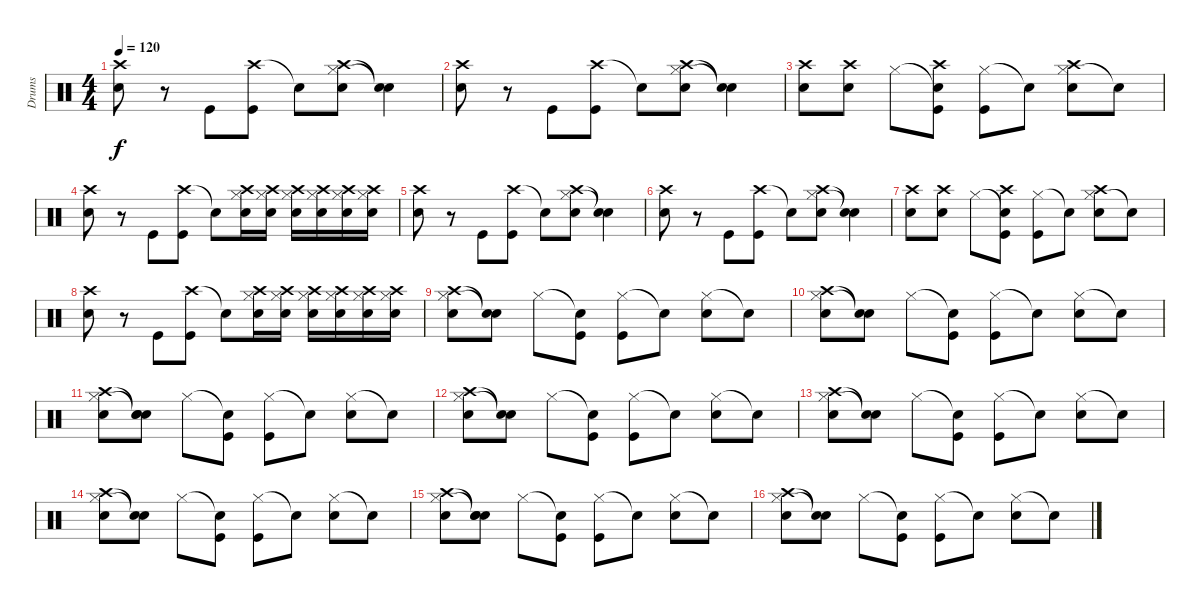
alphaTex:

\track ("Drums" "Drums") {instrument percussion}
\staff {score}
\articulation defaults
\ts (4 4)
\tempo 120
\clef neutral
\ks c
("Crash high (hit)" "Snare (hit) 2").8{dy f} r.8 "Kick (hit)".8 ("Crash high (hit)" "Kick (hit)").8 "Snare (hit)"{t}.8 ("Hi-Hat (closed)" "Crash high (hit)" "Snare (hit) 2").8 ("Snare (hit)"{t} "Snare (hit)"{t}).4 |
("Crash high (hit)" "Snare (hit) 2").8 r.8 "Kick (hit)".8 ("Crash high (hit)" "Kick (hit)").8 "Snare (hit)"{t}.8 ("Hi-Hat (closed)" "Crash high (hit)" "Snare (hit) 2").8 ("Snare (hit)"{t} "Snare (hit)"{t}).4 |
("Crash high (hit)" "Snare (hit) 2").8 ("Crash high (hit)" "Snare (hit) 2").8 "Hi-Hat (closed)".8 ("Snare (hit)"{t} "Crash high (hit)" "Kick (hit)").8 ("Hi-Hat (closed)" "Kick (hit)").8 "Snare (hit)"{t}.8 ("Hi-Hat (closed)" "Crash high (hit)" "Snare (hit) 2").8 "Snare (hit)"{t}.8 |
("Crash high (hit)" "Snare (hit) 2").8 r.8 "Kick (hit)".8 ("Crash high (hit)" "Kick (hit)").8 "Snare (hit)"{t}.8 ("Hi-Hat (closed)" "Crash high (hit)" "Snare (hit) 2").16 ("Hi-Hat (closed)" "Crash high (hit)" "Snare (hit) 2").16 ("Hi-Hat (closed)" "Crash high (hit)" "Snare (hit) 2").16 ("Hi-Hat (closed)" "Crash high (hit)" "Snare (hit) 2").16 ("Hi-Hat (closed)" "Crash high (hit)" "Snare (hit) 2").16 ("Hi-Hat (closed)" "Crash high (hit)" "Snare (hit) 2").16 |
("Crash high (hit)" "Snare (hit) 2").8 r.8 "Kick (hit)".8 ("Crash high (hit)" "Kick (hit)").8 "Snare (hit)"{t}.8 ("Hi-Hat (closed)" "Crash high (hit)" "Snare (hit) 2").8 ("Snare (hit)"{t} "Snare (hit)"{t}).4 |
("Crash high (hit)" "Snare (hit) 2").8 r.8 "Kick (hit)".8 ("Crash high (hit)" "Kick (hit)").8 "Snare (hit)"{t}.8 ("Hi-Hat (closed)" "Crash high (hit)" "Snare (hit) 2").8 ("Snare (hit)"{t} "Snare (hit)"{t}).4 |
("Crash high (hit)" "Snare (hit) 2").8 ("Crash high (hit)" "Snare (hit) 2").8 "Hi-Hat (closed)".8 ("Snare (hit)"{t} "Crash high (hit)" "Kick (hit)").8 ("Hi-Hat (closed)" "Kick (hit)").8 "Snare (hit)"{t}.8 ("Hi-Hat (closed)" "Crash high (hit)" "Snare (hit) 2").8 "Snare (hit)"{t}.8 |
("Crash high (hit)" "Snare (hit) 2").8 r.8 "Kick (hit)".8 ("Crash high (hit)" "Kick (hit)").8 "Snare (hit)"{t}.8 ("Hi-Hat (closed)" "Crash high (hit)" "Snare (hit) 2").16 ("Hi-Hat (closed)" "Crash high (hit)" "Snare (hit) 2").16 ("Hi-Hat (closed)" "Crash high (hit)" "Snare (hit) 2").16 ("Hi-Hat (closed)" "Crash high (hit)" "Snare (hit) 2").16 ("Hi-Hat (closed)" "Crash high (hit)" "Snare (hit) 2").16 ("Hi-Hat (closed)" "Crash high (hit)" "Snare (hit) 2").16 |
("Hi-Hat (closed)" "Crash high (hit)" "Snare (hit) 2").8 ("Snare (hit)"{t} "Snare (hit)"{t}).8 "Hi-Hat (closed)".8 ("Snare (hit)"{t} "Kick (hit)").8 ("Hi-Hat (closed)" "Kick (hit)").8 "Snare (hit)"{t}.8 ("Hi-Hat (closed)" "Snare (hit) 2").8 "Snare (hit)"{t}.8 |
("Hi-Hat (closed)" "Crash high (hit)" "Snare (hit) 2").8 ("Snare (hit)"{t} "Snare (hit)"{t}).8 "Hi-Hat (closed)".8 ("Snare (hit)"{t} "Kick (hit)").8 ("Hi-Hat (closed)" "Kick (hit)").8 "Snare (hit)"{t}.8 ("Hi-Hat (closed)" "Snare (hit) 2").8 "Snare (hit)"{t}.8 |
("Hi-Hat (closed)" "Crash high (hit)" "Snare (hit) 2").8 ("Snare (hit)"{t} "Snare (hit)"{t} "Snare (hit) 2").8 "Hi-Hat (closed)".8 ("Snare (hit)"{t} "Kick (hit)").8 ("Hi-Hat (closed)" "Kick (hit)").8 "Snare (hit)"{t}.8 ("Hi-Hat (closed)" "Snare (hit) 2").8 "Snare (hit)"{t}.8 |
("Hi-Hat (closed)" "Crash high (hit)" "Snare (hit) 2").8 ("Snare (hit)"{t} "Snare (hit)"{t}).8 "Hi-Hat (closed)".8 ("Snare (hit)"{t} "Kick (hit)").8 ("Hi-Hat (closed)" "Kick (hit)").8 "Snare (hit)"{t}.8 ("Hi-Hat (closed)" "Snare (hit) 2").8 "Snare (hit)"{t}.8 |
("Hi-Hat (closed)" "Crash high (hit)" "Snare (hit) 2").8 ("Snare (hit)"{t} "Snare (hit)"{t}).8 "Hi-Hat (closed)".8 ("Snare (hit)"{t} "Kick (hit)").8 ("Hi-Hat (closed)" "Kick (hit)").8 "Snare (hit)"{t}.8 ("Hi-Hat (closed)" "Snare (hit) 2").8 "Snare (hit)"{t}.8 |
("Hi-Hat (closed)" "Crash high (hit)" "Snare (hit) 2").8 ("Snare (hit)"{t} "Snare (hit)"{t}).8 "Hi-Hat (closed)".8 ("Snare (hit)"{t} "Kick (hit)").8 ("Hi-Hat (closed)" "Kick (hit)").8 "Snare (hit)"{t}.8 ("Hi-Hat (closed)" "Snare (hit) 2").8 "Snare (hit)"{t}.8 |
("Hi-Hat (closed)" "Crash high (hit)" "Snare (hit) 2").8 ("Snare (hit)"{t} "Snare (hit)"{t} "Snare (hit) 2").8 "Hi-Hat (closed)".8 ("Snare (hit)"{t} "Kick (hit)").8 ("Hi-Hat (closed)" "Kick (hit)").8 "Snare (hit)"{t}.8 ("Hi-Hat (closed)" "Snare (hit) 2").8 "Snare (hit)"{t}.8 |
("Hi-Hat (closed)" "Crash high (hit)" "Snare (hit) 2").8 ("Snare (hit)"{t} "Snare (hit)"{t}).8 "Hi-Hat (closed)".8 ("Snare (hit)"{t} "Kick (hit)").8 ("Hi-Hat (closed)" "Kick (hit)").8 "Snare (hit)"{t}.8 ("Hi-Hat (closed)" "Snare (hit) 2").8 "Snare (hit)"{t}.8
